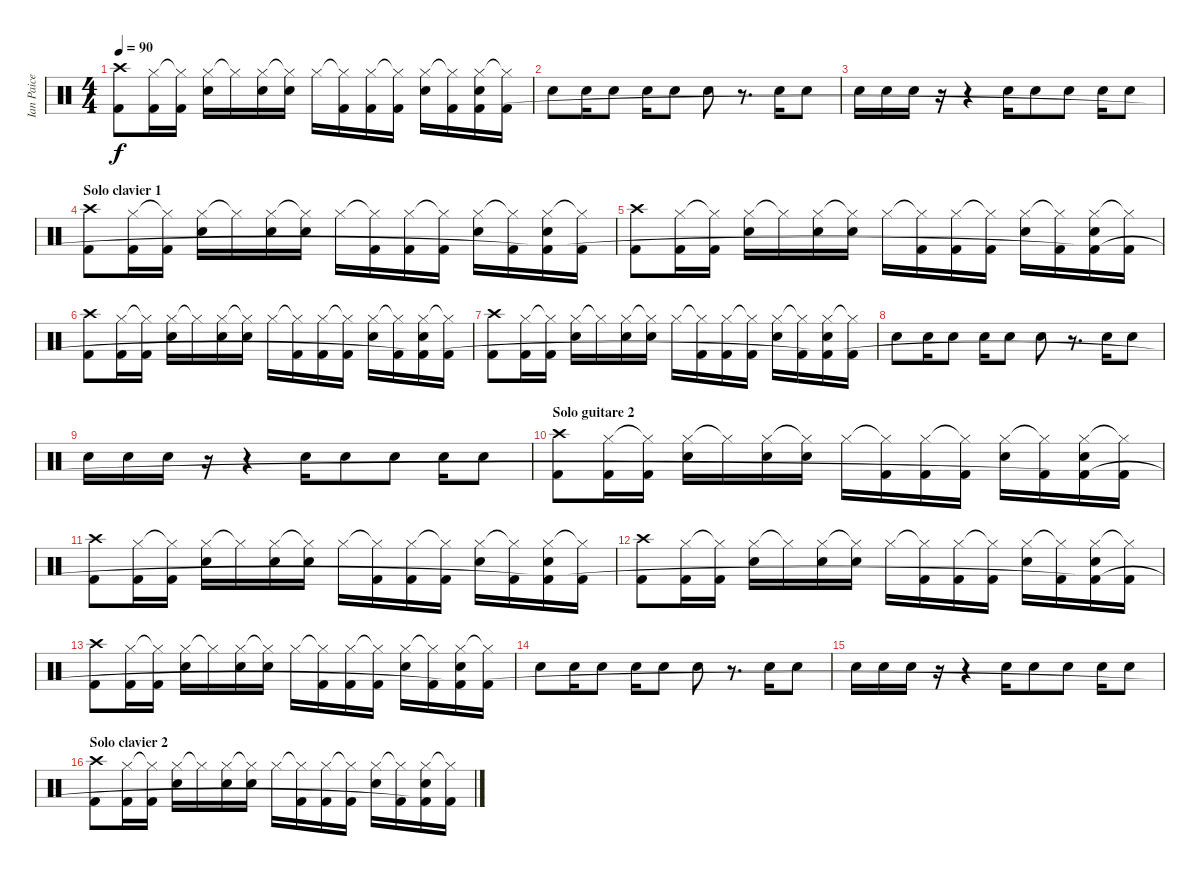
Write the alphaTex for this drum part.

\track ("Ian Paice" "Ian Paice") {instrument percussion}
\staff {score}
\articulation defaults
\ts (4 4)
\tempo 90
\clef neutral
\ks c
("Crash high (hit)" "Kick (hit) 2").8{dy f} ("Hi-Hat (closed)" "Kick (hit) 2").16 ("Hi-Hat (closed)"{t} "Kick (hit) 2").16 ("Hi-Hat (closed)" "Snare (hit) 2").16 "Hi-Hat (closed)"{t}.16 ("Hi-Hat (closed)" "Snare (hit) 2").16 ("Hi-Hat (closed)"{t} "Snare (hit) 2").16 "Hi-Hat (closed)".16 ("Hi-Hat (closed)"{t} "Kick (hit) 2").16 ("Hi-Hat (closed)" "Kick (hit) 2").16 ("Hi-Hat (closed)"{t} "Kick (hit) 2").16 ("Hi-Hat (closed)" "Snare (hit) 2").16 ("Hi-Hat (closed)"{t} "Kick (hit) 2").16 ("Hi-Hat (closed)" "Snare (hit) 2" "Kick (hit) 2"{t}).16 ("Hi-Hat (closed)"{t} "Kick (hit) 2").16 |
"Snare (hit) 2".8 "Snare (hit) 2".16 "Snare (hit) 2".8 "Snare (hit) 2".16 "Snare (hit) 2".8 "Snare (hit) 2".8 r.8{d} "Snare (hit) 2".16 "Snare (hit) 2".8 |
"Snare (hit) 2".16 "Snare (hit) 2".16 "Snare (hit) 2".16 r.16 r.4 "Snare (hit) 2".16 "Snare (hit) 2".8 "Snare (hit) 2".8 "Snare (hit) 2".16 "Snare (hit) 2".8 |
\section ("" "Solo clavier 1")
("Crash high (hit)" "Kick (hit) 2").8 ("Hi-Hat (closed)" "Kick (hit) 2").16 ("Hi-Hat (closed)"{t} "Kick (hit) 2").16 ("Hi-Hat (closed)" "Snare (hit) 2").16 "Hi-Hat (closed)"{t}.16 ("Hi-Hat (closed)" "Snare (hit) 2").16 ("Hi-Hat (closed)"{t} "Snare (hit) 2").16 "Hi-Hat (closed)".16 ("Hi-Hat (closed)"{t} "Kick (hit) 2").16 ("Hi-Hat (closed)" "Kick (hit) 2").16 ("Hi-Hat (closed)"{t} "Kick (hit) 2").16 ("Hi-Hat (closed)" "Snare (hit) 2").16 ("Hi-Hat (closed)"{t} "Kick (hit) 2").16 ("Hi-Hat (closed)" "Snare (hit) 2" "Kick (hit) 2"{t}).16 ("Hi-Hat (closed)"{t} "Kick (hit) 2").16 |
("Crash high (hit)" "Kick (hit) 2").8 ("Hi-Hat (closed)" "Kick (hit) 2").16 ("Hi-Hat (closed)"{t} "Kick (hit) 2").16 ("Hi-Hat (closed)" "Snare (hit) 2").16 "Hi-Hat (closed)"{t}.16 ("Hi-Hat (closed)" "Snare (hit) 2").16 ("Hi-Hat (closed)"{t} "Snare (hit) 2").16 "Hi-Hat (closed)".16 ("Hi-Hat (closed)"{t} "Kick (hit) 2").16 ("Hi-Hat (closed)" "Kick (hit) 2").16 ("Hi-Hat (closed)"{t} "Kick (hit) 2").16 ("Hi-Hat (closed)" "Snare (hit) 2").16 ("Hi-Hat (closed)"{t} "Kick (hit) 2").16 ("Hi-Hat (closed)" "Snare (hit) 2" "Kick (hit) 2"{t}).16 ("Hi-Hat (closed)"{t} "Kick (hit) 2").16 |
("Crash high (hit)" "Kick (hit) 2").8 ("Hi-Hat (closed)" "Kick (hit) 2").16 ("Hi-Hat (closed)"{t} "Kick (hit) 2").16 ("Hi-Hat (closed)" "Snare (hit) 2").16 "Hi-Hat (closed)"{t}.16 ("Hi-Hat (closed)" "Snare (hit) 2").16 ("Hi-Hat (closed)"{t} "Snare (hit) 2").16 "Hi-Hat (closed)".16 ("Hi-Hat (closed)"{t} "Kick (hit) 2").16 ("Hi-Hat (closed)" "Kick (hit) 2").16 ("Hi-Hat (closed)"{t} "Kick (hit) 2").16 ("Hi-Hat (closed)" "Snare (hit) 2").16 ("Hi-Hat (closed)"{t} "Kick (hit) 2").16 ("Hi-Hat (closed)" "Snare (hit) 2" "Kick (hit) 2"{t}).16 ("Hi-Hat (closed)"{t} "Kick (hit) 2").16 |
("Crash high (hit)" "Kick (hit) 2").8 ("Hi-Hat (closed)" "Kick (hit) 2").16 ("Hi-Hat (closed)"{t} "Kick (hit) 2").16 ("Hi-Hat (closed)" "Snare (hit) 2").16 "Hi-Hat (closed)"{t}.16 ("Hi-Hat (closed)" "Snare (hit) 2").16 ("Hi-Hat (closed)"{t} "Snare (hit) 2").16 "Hi-Hat (closed)".16 ("Hi-Hat (closed)"{t} "Kick (hit) 2").16 ("Hi-Hat (closed)" "Kick (hit) 2").16 ("Hi-Hat (closed)"{t} "Kick (hit) 2").16 ("Hi-Hat (closed)" "Snare (hit) 2").16 ("Hi-Hat (closed)"{t} "Kick (hit) 2").16 ("Hi-Hat (closed)" "Snare (hit) 2" "Kick (hit) 2"{t}).16 ("Hi-Hat (closed)"{t} "Kick (hit) 2").16 |
"Snare (hit) 2".8 "Snare (hit) 2".16 "Snare (hit) 2".8 "Snare (hit) 2".16 "Snare (hit) 2".8 "Snare (hit) 2".8 r.8{d} "Snare (hit) 2".16 "Snare (hit) 2".8 |
"Snare (hit) 2".16 "Snare (hit) 2".16 "Snare (hit) 2".16 r.16 r.4 "Snare (hit) 2".16 "Snare (hit) 2".8 "Snare (hit) 2".8 "Snare (hit) 2".16 "Snare (hit) 2".8 |
\section ("" "Solo guitare 2")
("Crash high (hit)" "Kick (hit) 2").8 ("Hi-Hat (closed)" "Kick (hit) 2").16 ("Hi-Hat (closed)"{t} "Kick (hit) 2").16 ("Hi-Hat (closed)" "Snare (hit) 2").16 "Hi-Hat (closed)"{t}.16 ("Hi-Hat (closed)" "Snare (hit) 2").16 ("Hi-Hat (closed)"{t} "Snare (hit) 2").16 "Hi-Hat (closed)".16 ("Hi-Hat (closed)"{t} "Kick (hit) 2").16 ("Hi-Hat (closed)" "Kick (hit) 2").16 ("Hi-Hat (closed)"{t} "Kick (hit) 2").16 ("Hi-Hat (closed)" "Snare (hit) 2").16 ("Hi-Hat (closed)"{t} "Kick (hit) 2").16 ("Hi-Hat (closed)" "Snare (hit) 2" "Kick (hit) 2"{t}).16 ("Hi-Hat (closed)"{t} "Kick (hit) 2").16 |
("Crash high (hit)" "Kick (hit) 2").8 ("Hi-Hat (closed)" "Kick (hit) 2").16 ("Hi-Hat (closed)"{t} "Kick (hit) 2").16 ("Hi-Hat (closed)" "Snare (hit) 2").16 "Hi-Hat (closed)"{t}.16 ("Hi-Hat (closed)" "Snare (hit) 2").16 ("Hi-Hat (closed)"{t} "Snare (hit) 2").16 "Hi-Hat (closed)".16 ("Hi-Hat (closed)"{t} "Kick (hit) 2").16 ("Hi-Hat (closed)" "Kick (hit) 2").16 ("Hi-Hat (closed)"{t} "Kick (hit) 2").16 ("Hi-Hat (closed)" "Snare (hit) 2").16 ("Hi-Hat (closed)"{t} "Kick (hit) 2").16 ("Hi-Hat (closed)" "Snare (hit) 2" "Kick (hit) 2"{t}).16 ("Hi-Hat (closed)"{t} "Kick (hit) 2").16 |
("Crash high (hit)" "Kick (hit) 2").8 ("Hi-Hat (closed)" "Kick (hit) 2").16 ("Hi-Hat (closed)"{t} "Kick (hit) 2").16 ("Hi-Hat (closed)" "Snare (hit) 2").16 "Hi-Hat (closed)"{t}.16 ("Hi-Hat (closed)" "Snare (hit) 2").16 ("Hi-Hat (closed)"{t} "Snare (hit) 2").16 "Hi-Hat (closed)".16 ("Hi-Hat (closed)"{t} "Kick (hit) 2").16 ("Hi-Hat (closed)" "Kick (hit) 2").16 ("Hi-Hat (closed)"{t} "Kick (hit) 2").16 ("Hi-Hat (closed)" "Snare (hit) 2").16 ("Hi-Hat (closed)"{t} "Kick (hit) 2").16 ("Hi-Hat (closed)" "Snare (hit) 2" "Kick (hit) 2"{t}).16 ("Hi-Hat (closed)"{t} "Kick (hit) 2").16 |
("Crash high (hit)" "Kick (hit) 2").8 ("Hi-Hat (closed)" "Kick (hit) 2").16 ("Hi-Hat (closed)"{t} "Kick (hit) 2").16 ("Hi-Hat (closed)" "Snare (hit) 2").16 "Hi-Hat (closed)"{t}.16 ("Hi-Hat (closed)" "Snare (hit) 2").16 ("Hi-Hat (closed)"{t} "Snare (hit) 2").16 "Hi-Hat (closed)".16 ("Hi-Hat (closed)"{t} "Kick (hit) 2").16 ("Hi-Hat (closed)" "Kick (hit) 2").16 ("Hi-Hat (closed)"{t} "Kick (hit) 2").16 ("Hi-Hat (closed)" "Snare (hit) 2").16 ("Hi-Hat (closed)"{t} "Kick (hit) 2").16 ("Hi-Hat (closed)" "Snare (hit) 2" "Kick (hit) 2"{t}).16 ("Hi-Hat (closed)"{t} "Kick (hit) 2").16 |
"Snare (hit) 2".8 "Snare (hit) 2".16 "Snare (hit) 2".8 "Snare (hit) 2".16 "Snare (hit) 2".8 "Snare (hit) 2".8 r.8{d} "Snare (hit) 2".16 "Snare (hit) 2".8 |
"Snare (hit) 2".16 "Snare (hit) 2".16 "Snare (hit) 2".16 r.16 r.4 "Snare (hit) 2".16 "Snare (hit) 2".8 "Snare (hit) 2".8 "Snare (hit) 2".16 "Snare (hit) 2".8 |
\section ("" "Solo clavier 2")
("Crash high (hit)" "Kick (hit) 2").8 ("Hi-Hat (closed)" "Kick (hit) 2").16 ("Hi-Hat (closed)"{t} "Kick (hit) 2").16 ("Hi-Hat (closed)" "Snare (hit) 2").16 "Hi-Hat (closed)"{t}.16 ("Hi-Hat (closed)" "Snare (hit) 2").16 ("Hi-Hat (closed)"{t} "Snare (hit) 2").16 "Hi-Hat (closed)".16 ("Hi-Hat (closed)"{t} "Kick (hit) 2").16 ("Hi-Hat (closed)" "Kick (hit) 2").16 ("Hi-Hat (closed)"{t} "Kick (hit) 2").16 ("Hi-Hat (closed)" "Snare (hit) 2").16 ("Hi-Hat (closed)"{t} "Kick (hit) 2").16 ("Hi-Hat (closed)" "Snare (hit) 2" "Kick (hit) 2"{t}).16 ("Hi-Hat (closed)"{t} "Kick (hit) 2").16
